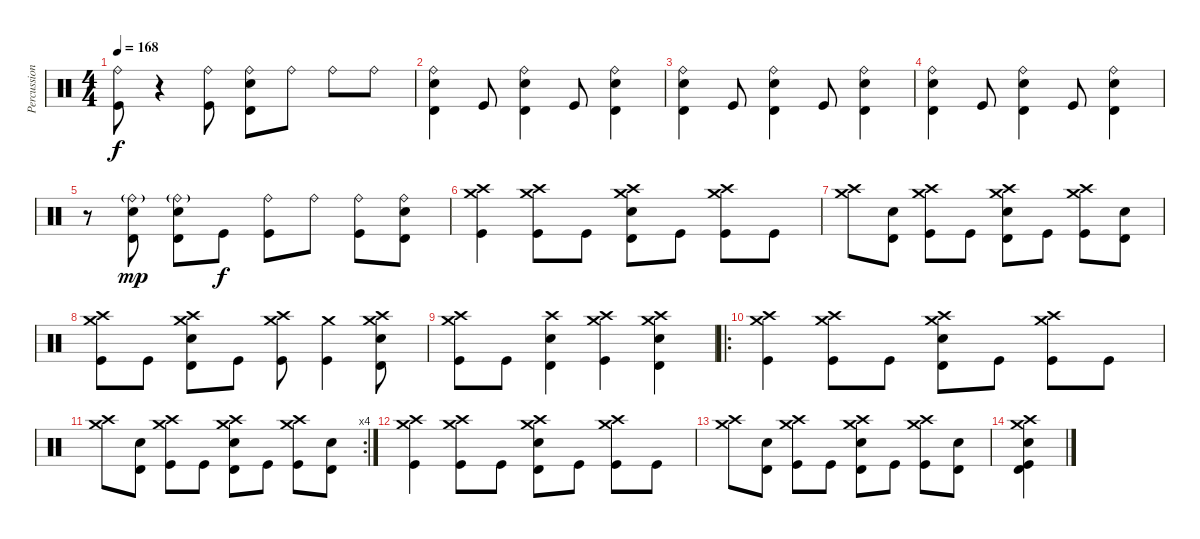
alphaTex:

\track ("Percussion" "Percussion") {instrument percussion}
\staff {score}
\articulation defaults
\ts (4 4)
\tempo 168
\clef neutral
\ks c
("Ride (bell)" "Kick (hit)").8{dy f} r.4 ("Ride (bell)" "Kick (hit)").8 ("Ride (bell)" "Timbale high (hit)" "Electric Snare (hit)").8 "Ride (bell)".8 "Ride (bell)".8 "Ride (bell)".8 |
("Ride (bell)" "Electric Snare (hit)" "Timbale high (hit)").4 "Kick (hit)".8 ("Ride (bell)" "Electric Snare (hit)" "Timbale high (hit)").4 "Kick (hit)".8 ("Ride (bell)" "Electric Snare (hit)" "Timbale high (hit)").4 |
("Ride (bell)" "Electric Snare (hit)" "Timbale high (hit)").4 "Kick (hit)".8 ("Ride (bell)" "Electric Snare (hit)" "Timbale high (hit)").4 "Kick (hit)".8 ("Ride (bell)" "Electric Snare (hit)" "Timbale high (hit)").4 |
("Ride (bell)" "Electric Snare (hit)" "Timbale high (hit)").4 "Kick (hit)".8 ("Ride (bell)" "Electric Snare (hit)" "Timbale high (hit)").4 "Kick (hit)".8 ("Ride (bell)" "Electric Snare (hit)" "Timbale high (hit)").4 |
r.8 ("Timbale high (hit)" "Electric Snare (hit)" "Ride (bell)"{g}).8{dy mp} ("Timbale high (hit)" "Electric Snare (hit)" "Ride (bell)"{g}).8 "Kick (hit)".8{dy f} ("Ride (bell)" "Kick (hit)").8 "Ride (bell)".8 ("Ride (bell)" "Kick (hit)").8 ("Ride (bell)" "Electric Snare (hit)" "Timbale high (hit)").8 |
("Crash high (hit)" "Crash medium (hit)" "Kick (hit)").4{volume 16} ("Crash high (hit)" "Crash medium (hit)" "Kick (hit)").8 "Kick (hit)".8 ("Timbale high (hit)" "Electric Snare (hit)" "Crash high (hit)" "Crash medium (hit)").8 "Kick (hit)".8 ("Crash high (hit)" "Crash medium (hit)" "Kick (hit)").8 "Kick (hit)".8 |
("Crash high (hit)" "Crash medium (hit)").8 ("Electric Snare (hit)" "Timbale high (hit)").8 ("Crash high (hit)" "Crash medium (hit)" "Kick (hit)").8 "Kick (hit)".8 ("Timbale high (hit)" "Electric Snare (hit)" "Crash medium (hit)" "Crash high (hit)").8 "Kick (hit)".8 ("Crash high (hit)" "Crash medium (hit)" "Kick (hit)").8 ("Electric Snare (hit)" "Timbale high (hit)").8 |
("Crash high (hit)" "Crash medium (hit)" "Kick (hit)").8 "Kick (hit)".8 ("Electric Snare (hit)" "Timbale high (hit)" "Crash high (hit)" "Crash medium (hit)").8 "Kick (hit)".8 ("Crash high (hit)" "Crash medium (hit)" "Kick (hit)").8 ("Crash medium (hit)" "Kick (hit)").4 ("Electric Snare (hit)" "Timbale high (hit)" "Crash medium (hit)" "Crash high (hit)").8 |
("Crash high (hit)" "Crash medium (hit)" "Kick (hit)").8 "Kick (hit)".8 ("Timbale high (hit)" "Electric Snare (hit)" "Crash high (hit)").4 ("Crash medium (hit)" "Crash high (hit)" "Kick (hit)").4 ("Crash high (hit)" "Crash medium (hit)" "Timbale high (hit)" "Electric Snare (hit)").4 |
\ro
("Crash high (hit)" "Crash medium (hit)" "Kick (hit)").4 ("Crash high (hit)" "Crash medium (hit)" "Kick (hit)").8 "Kick (hit)".8 ("Timbale high (hit)" "Electric Snare (hit)" "Crash high (hit)" "Crash medium (hit)").8 "Kick (hit)".8 ("Crash high (hit)" "Crash medium (hit)" "Kick (hit)").8 "Kick (hit)".8 |
\rc 4
("Crash high (hit)" "Crash medium (hit)").8 ("Electric Snare (hit)" "Timbale high (hit)").8 ("Crash high (hit)" "Crash medium (hit)" "Kick (hit)").8 "Kick (hit)".8 ("Timbale high (hit)" "Electric Snare (hit)" "Crash medium (hit)" "Crash high (hit)").8 "Kick (hit)".8 ("Crash high (hit)" "Crash medium (hit)" "Kick (hit)").8 ("Electric Snare (hit)" "Timbale high (hit)").8 |
("Crash high (hit)" "Crash medium (hit)" "Kick (hit)").4 ("Crash high (hit)" "Crash medium (hit)" "Kick (hit)").8 "Kick (hit)".8 ("Timbale high (hit)" "Electric Snare (hit)" "Crash high (hit)" "Crash medium (hit)").8 "Kick (hit)".8 ("Crash high (hit)" "Crash medium (hit)" "Kick (hit)").8 "Kick (hit)".8 |
("Crash high (hit)" "Crash medium (hit)").8 ("Electric Snare (hit)" "Timbale high (hit)").8 ("Crash high (hit)" "Crash medium (hit)" "Kick (hit)").8 "Kick (hit)".8 ("Timbale high (hit)" "Electric Snare (hit)" "Crash medium (hit)" "Crash high (hit)").8 "Kick (hit)".8 ("Crash high (hit)" "Crash medium (hit)" "Kick (hit)").8 ("Electric Snare (hit)" "Timbale high (hit)").8 |
("Crash medium (hit)" "Electric Snare (hit)" "Timbale high (hit)" "Crash high (hit)" "Kick (hit)").4
